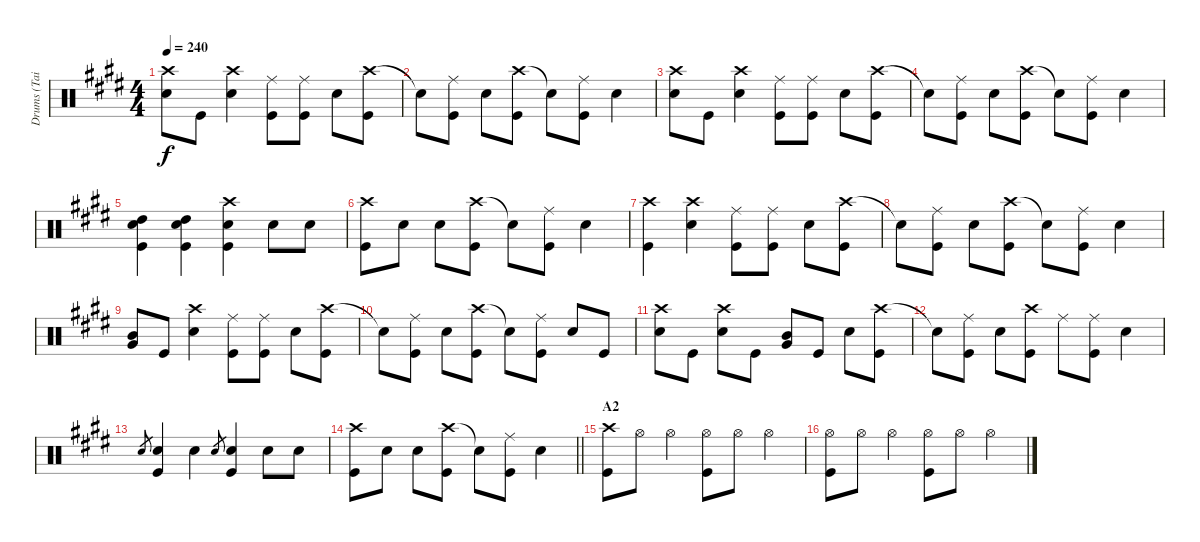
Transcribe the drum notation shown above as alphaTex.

\track ("Drums (Tainaka Ritsu)" "Drums (Tai") {instrument percussion}
\staff {score}
\articulation defaults
\ts (4 4)
\tempo 240
\clef neutral
\ks e
("Crash high (hit)" "Snare (hit) 2").8{dy f} "Kick (hit)".8 ("Crash high (hit)" "Snare (hit) 2").4 ("Ride (middle)" "Kick (hit)").8 ("Ride (middle)" "Kick (hit)").8 "Snare (hit) 2".8 ("Crash high (hit)" "Kick (hit)").8 |
"Snare (hit)"{t}.8 ("Ride (middle)" "Kick (hit)").8 "Snare (hit) 2".8 ("Crash high (hit)" "Kick (hit)").8 "Snare (hit)"{t}.8 ("Ride (middle)" "Kick (hit)").8 "Snare (hit) 2".4 |
("Crash high (hit)" "Snare (hit) 2").8 "Kick (hit)".8 ("Crash high (hit)" "Snare (hit) 2").4 ("Ride (middle)" "Kick (hit)").8 ("Ride (middle)" "Kick (hit)").8 "Snare (hit) 2".8 ("Crash high (hit)" "Kick (hit)").8 |
"Snare (hit)"{t}.8 ("Ride (middle)" "Kick (hit)").8 "Snare (hit) 2".8 ("Crash high (hit)" "Kick (hit)").8 "Snare (hit)"{t}.8 ("Ride (middle)" "Kick (hit)").8 "Snare (hit) 2".4 |
("Snare (hit) 2" "High Tom (hit)" "Kick (hit)").4 ("Snare (hit) 2" "High Tom (hit)" "Kick (hit)").4 ("Crash high (hit)" "Snare (hit) 2" "Kick (hit)").4 "Snare (hit) 2".8 "Snare (hit) 2".8 |
("Crash high (hit)" "Kick (hit)").8 "Snare (hit) 2".8 "Snare (hit) 2".8 ("Crash high (hit)" "Kick (hit)").8 "Snare (hit)"{t}.8 ("Ride (middle)" "Kick (hit)").8 "Snare (hit) 2".4 |
("Crash high (hit)" "Kick (hit)").4 ("Crash high (hit)" "Snare (hit) 2").4 ("Ride (middle)" "Kick (hit)").8 ("Ride (middle)" "Kick (hit)").8 "Snare (hit) 2".8 ("Crash high (hit)" "Kick (hit)").8 |
"Snare (hit)"{t}.8 ("Ride (middle)" "Kick (hit)").8 "Snare (hit) 2".8 ("Crash high (hit)" "Kick (hit)").8 "Snare (hit)"{t}.8 ("Ride (middle)" "Kick (hit)").8 "Snare (hit) 2".4 |
("Mid Tom (hit)" "Very Low Tom (hit)").8 "Kick (hit)".8 ("Crash high (hit)" "Snare (hit) 2").4 ("Ride (middle)" "Kick (hit)").8 ("Ride (middle)" "Kick (hit)").8 "Snare (hit) 2".8 ("Crash high (hit)" "Kick (hit)").8 |
"Snare (hit)"{t}.8 ("Ride (middle)" "Kick (hit)").8 "Snare (hit) 2".8 ("Crash high (hit)" "Kick (hit)").8 "Snare (hit)"{t}.8 ("Ride (middle)" "Kick (hit)").8 "Snare (hit) 2".8 "Kick (hit)".8 |
("Crash high (hit)" "Snare (hit) 2").8 "Kick (hit)".8 ("Crash high (hit)" "Snare (hit) 2").8 "Kick (hit)".8 ("Mid Tom (hit)" "Very Low Tom (hit)").8 "Kick (hit)".8 "Snare (hit) 2".8 ("Crash high (hit)" "Kick (hit)").8 |
"Snare (hit)"{t}.8 ("Ride (middle)" "Kick (hit)").8 "Snare (hit) 2".8 ("Crash high (hit)" "Kick (hit)").8 "Ride (middle)".8 ("Ride (middle)" "Kick (hit)").8 "Snare (hit) 2".4 |
"Snare (hit) 2".8{gr} ("Snare (hit) 2" "Kick (hit)").4 "Snare (hit) 2".4 "Snare (hit) 2".8{gr} ("Snare (hit) 2" "Kick (hit)").4 "Snare (hit) 2".8 "Snare (hit) 2".8 |
\barLineRight lightlight
("Crash high (hit)" "Kick (hit)").8 "Snare (hit) 2".8 "Snare (hit) 2".8 ("Crash high (hit)" "Kick (hit)").8 "Snare (hit)"{t}.8 ("Ride (middle)" "Kick (hit)").8 "Snare (hit) 2".4 |
\section ("" "A2")
("Crash high (hit)" "Kick (hit)").8 "Hi-Hat (open)".8 "Hi-Hat (open)".4 ("Hi-Hat (open)" "Kick (hit)").8 "Hi-Hat (open)".8 "Hi-Hat (open)".4 |
("Hi-Hat (open)" "Kick (hit)").8 "Hi-Hat (open)".8 "Hi-Hat (open)".4 ("Hi-Hat (open)" "Kick (hit)").8 "Hi-Hat (open)".8 "Hi-Hat (open)".4
